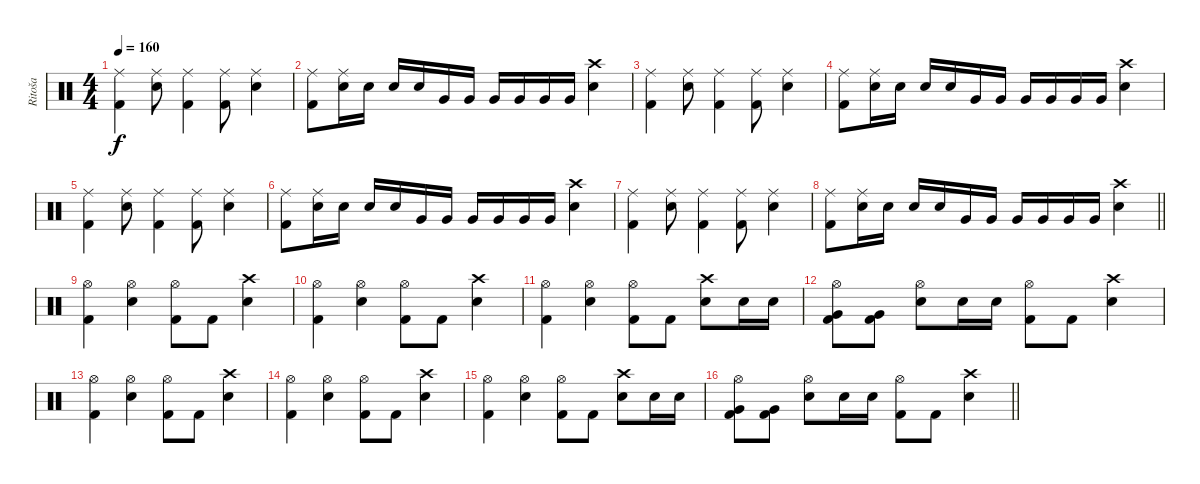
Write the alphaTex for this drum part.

\track ("Ritoša" "Ritoša") {instrument percussion}
\staff {score}
\articulation defaults
\ts (4 4)
\tempo 160
\clef neutral
\ks c
("Ride (middle)" "Kick (hit) 2").4{dy f} ("Ride (middle)" "Electric Snare (hit)").8 ("Ride (middle)" "Kick (hit) 2").4 ("Ride (middle)" "Kick (hit) 2").8 ("Ride (middle)" "Electric Snare (hit)").4 |
("Ride (middle)" "Kick (hit) 2").8 ("Ride (middle)" "Electric Snare (hit)").16 "Electric Snare (hit)".16 "Electric Snare (hit)".16 "Electric Snare (hit)".16 "Very Low Tom (hit)".16 "Very Low Tom (hit)".16 "Very Low Tom (hit)".16 "Very Low Tom (hit)".16 "Very Low Tom (hit)".16 "Very Low Tom (hit)".16 ("Crash high (hit)" "Electric Snare (hit)").4 |
("Ride (middle)" "Kick (hit) 2").4 ("Ride (middle)" "Electric Snare (hit)").8 ("Ride (middle)" "Kick (hit) 2").4 ("Ride (middle)" "Kick (hit) 2").8 ("Ride (middle)" "Electric Snare (hit)").4 |
("Ride (middle)" "Kick (hit) 2").8 ("Ride (middle)" "Electric Snare (hit)").16 "Electric Snare (hit)".16 "Electric Snare (hit)".16 "Electric Snare (hit)".16 "Very Low Tom (hit)".16 "Very Low Tom (hit)".16 "Very Low Tom (hit)".16 "Very Low Tom (hit)".16 "Very Low Tom (hit)".16 "Very Low Tom (hit)".16 ("Crash high (hit)" "Electric Snare (hit)").4 |
("Ride (middle)" "Kick (hit) 2").4 ("Ride (middle)" "Electric Snare (hit)").8 ("Ride (middle)" "Kick (hit) 2").4 ("Ride (middle)" "Kick (hit) 2").8 ("Ride (middle)" "Electric Snare (hit)").4 |
("Ride (middle)" "Kick (hit) 2").8 ("Ride (middle)" "Electric Snare (hit)").16 "Electric Snare (hit)".16 "Electric Snare (hit)".16 "Electric Snare (hit)".16 "Very Low Tom (hit)".16 "Very Low Tom (hit)".16 "Very Low Tom (hit)".16 "Very Low Tom (hit)".16 "Very Low Tom (hit)".16 "Very Low Tom (hit)".16 ("Crash high (hit)" "Electric Snare (hit)").4 |
("Ride (middle)" "Kick (hit) 2").4 ("Ride (middle)" "Electric Snare (hit)").8 ("Ride (middle)" "Kick (hit) 2").4 ("Ride (middle)" "Kick (hit) 2").8 ("Ride (middle)" "Electric Snare (hit)").4 |
\barLineRight lightlight
("Ride (middle)" "Kick (hit) 2").8 ("Ride (middle)" "Electric Snare (hit)").16 "Electric Snare (hit)".16 "Electric Snare (hit)".16 "Electric Snare (hit)".16 "Very Low Tom (hit)".16 "Very Low Tom (hit)".16 "Very Low Tom (hit)".16 "Very Low Tom (hit)".16 "Very Low Tom (hit)".16 "Very Low Tom (hit)".16 ("Crash high (hit)" "Electric Snare (hit)").4 |
("Hi-Hat (open)" "Kick (hit) 2").4 ("Hi-Hat (open)" "Electric Snare (hit)").4 ("Hi-Hat (open)" "Kick (hit) 2").8 "Kick (hit) 2".8 ("Crash high (hit)" "Electric Snare (hit)").4 |
("Hi-Hat (open)" "Kick (hit) 2").4 ("Hi-Hat (open)" "Electric Snare (hit)").4 ("Hi-Hat (open)" "Kick (hit) 2").8 "Kick (hit) 2".8 ("Crash high (hit)" "Electric Snare (hit)").4 |
("Hi-Hat (open)" "Kick (hit) 2").4 ("Hi-Hat (open)" "Electric Snare (hit)").4 ("Hi-Hat (open)" "Kick (hit) 2").8 "Kick (hit) 2".8 ("Crash high (hit)" "Electric Snare (hit)").8 "Electric Snare (hit)".16 "Electric Snare (hit)".16 |
("Hi-Hat (open)" "Very Low Tom (hit)" "Kick (hit) 2").8 ("Very Low Tom (hit)" "Kick (hit) 2").8 ("Hi-Hat (open)" "Electric Snare (hit)").8 "Electric Snare (hit)".16 "Electric Snare (hit)".16 ("Hi-Hat (open)" "Kick (hit) 2").8 "Kick (hit) 2".8 ("Crash high (hit)" "Electric Snare (hit)").4 |
("Hi-Hat (open)" "Kick (hit) 2").4 ("Hi-Hat (open)" "Electric Snare (hit)").4 ("Hi-Hat (open)" "Kick (hit) 2").8 "Kick (hit) 2".8 ("Crash high (hit)" "Electric Snare (hit)").4 |
("Hi-Hat (open)" "Kick (hit) 2").4 ("Hi-Hat (open)" "Electric Snare (hit)").4 ("Hi-Hat (open)" "Kick (hit) 2").8 "Kick (hit) 2".8 ("Crash high (hit)" "Electric Snare (hit)").4 |
("Hi-Hat (open)" "Kick (hit) 2").4 ("Hi-Hat (open)" "Electric Snare (hit)").4 ("Hi-Hat (open)" "Kick (hit) 2").8 "Kick (hit) 2".8 ("Crash high (hit)" "Electric Snare (hit)").8 "Electric Snare (hit)".16 "Electric Snare (hit)".16 |
\barLineRight lightlight
("Hi-Hat (open)" "Very Low Tom (hit)" "Kick (hit) 2").8 ("Very Low Tom (hit)" "Kick (hit) 2").8 ("Hi-Hat (open)" "Electric Snare (hit)").8 "Electric Snare (hit)".16 "Electric Snare (hit)".16 ("Hi-Hat (open)" "Kick (hit) 2").8 "Kick (hit) 2".8 ("Crash high (hit)" "Electric Snare (hit)").4
